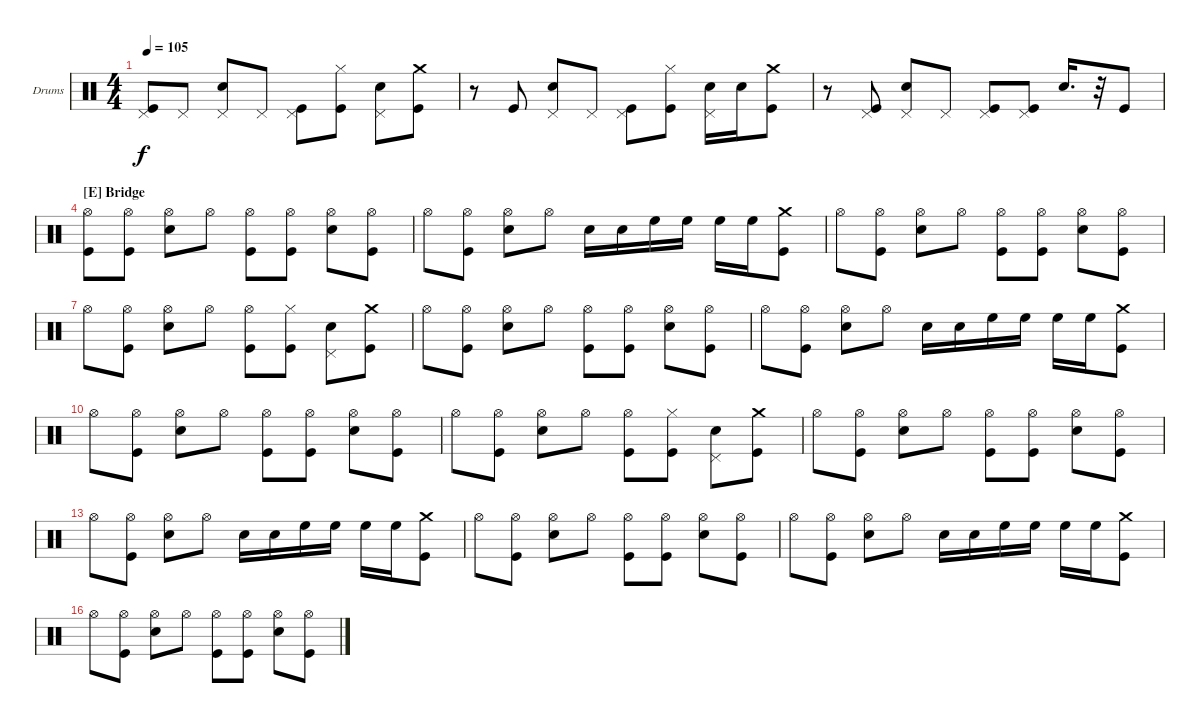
\bracketExtendMode nobrackets
\firstSystemTrackNameOrientation horizontal
\otherSystemsTrackNameOrientation horizontal
\defaultBarNumberDisplay FirstOfSystem
\track ("Drumkit" "Drums") {instrument percussion}
\staff {score}
\articulation defaults
\ts (4 4)
\tempo 105
\clef neutral
\ks c
("Kick (hit)" "Pedal Hi-Hat (hit)").8{dy f} "Pedal Hi-Hat (hit)".8 ("Snare (hit) 2" "Pedal Hi-Hat (hit)").8 "Pedal Hi-Hat (hit)".8 ("Kick (hit)" "Pedal Hi-Hat (hit)").8 ("Kick (hit)" "Hi-Hat (closed)").8 ("Snare (hit) 2" "Pedal Hi-Hat (hit)").8 ("Kick (hit)" "Crash medium (hit)").8 |
r.8 "Kick (hit)".8 ("Snare (hit) 2" "Pedal Hi-Hat (hit)").8 "Pedal Hi-Hat (hit)".8 ("Kick (hit)" "Pedal Hi-Hat (hit)").8 ("Kick (hit)" "Hi-Hat (closed)").8 ("Snare (hit) 2" "Pedal Hi-Hat (hit)").16 "Snare (hit) 2".16 ("Kick (hit)" "Crash medium (hit)").8 |
r.8 ("Kick (hit)" "Pedal Hi-Hat (hit)").8 ("Snare (hit) 2" "Pedal Hi-Hat (hit)").8 "Pedal Hi-Hat (hit)".8 ("Kick (hit)" "Pedal Hi-Hat (hit)").8 ("Kick (hit)" "Pedal Hi-Hat (hit)").8 "Snare (hit) 2".16{d} r.32 "Kick (hit)".8 |
\section ("E" "Bridge")
("Kick (hit)" "Hi-Hat (open)").8 ("Kick (hit)" "Hi-Hat (open)").8 ("Snare (hit) 2" "Hi-Hat (open)").8 "Hi-Hat (open)".8 ("Kick (hit)" "Hi-Hat (open)").8 ("Kick (hit)" "Hi-Hat (open)").8 ("Snare (hit) 2" "Hi-Hat (open)").8 ("Kick (hit)" "Hi-Hat (open)").8 |
"Hi-Hat (open)".8 ("Kick (hit)" "Hi-Hat (open)").8 ("Snare (hit) 2" "Hi-Hat (open)").8 "Hi-Hat (open)".8 "Snare (hit) 2".16 "Snare (hit) 2".16 "High Floor Tom (hit)".16 "High Floor Tom (hit)".16 "High Floor Tom (hit)".16 "High Floor Tom (hit)".16 ("Kick (hit)" "Crash medium (hit)").8 |
"Hi-Hat (open)".8 ("Kick (hit)" "Hi-Hat (open)").8 ("Snare (hit) 2" "Hi-Hat (open)").8 "Hi-Hat (open)".8 ("Kick (hit)" "Hi-Hat (open)").8 ("Kick (hit)" "Hi-Hat (open)").8 ("Snare (hit) 2" "Hi-Hat (open)").8 ("Kick (hit)" "Hi-Hat (open)").8 |
"Hi-Hat (open)".8 ("Kick (hit)" "Hi-Hat (open)").8 ("Snare (hit) 2" "Hi-Hat (open)").8 "Hi-Hat (open)".8 ("Kick (hit)" "Hi-Hat (open)").8 ("Kick (hit)" "Hi-Hat (closed)").8 ("Snare (hit) 2" "Pedal Hi-Hat (hit)").8 ("Kick (hit)" "Crash medium (hit)").8 |
"Hi-Hat (open)".8 ("Kick (hit)" "Hi-Hat (open)").8 ("Snare (hit) 2" "Hi-Hat (open)").8 "Hi-Hat (open)".8 ("Kick (hit)" "Hi-Hat (open)").8 ("Kick (hit)" "Hi-Hat (open)").8 ("Snare (hit) 2" "Hi-Hat (open)").8 ("Kick (hit)" "Hi-Hat (open)").8 |
"Hi-Hat (open)".8 ("Kick (hit)" "Hi-Hat (open)").8 ("Snare (hit) 2" "Hi-Hat (open)").8 "Hi-Hat (open)".8 "Snare (hit) 2".16 "Snare (hit) 2".16 "High Floor Tom (hit)".16 "High Floor Tom (hit)".16 "High Floor Tom (hit)".16 "High Floor Tom (hit)".16 ("Kick (hit)" "Crash medium (hit)").8 |
"Hi-Hat (open)".8 ("Kick (hit)" "Hi-Hat (open)").8 ("Snare (hit) 2" "Hi-Hat (open)").8 "Hi-Hat (open)".8 ("Kick (hit)" "Hi-Hat (open)").8 ("Kick (hit)" "Hi-Hat (open)").8 ("Snare (hit) 2" "Hi-Hat (open)").8 ("Kick (hit)" "Hi-Hat (open)").8 |
"Hi-Hat (open)".8 ("Kick (hit)" "Hi-Hat (open)").8 ("Snare (hit) 2" "Hi-Hat (open)").8 "Hi-Hat (open)".8 ("Kick (hit)" "Hi-Hat (open)").8 ("Kick (hit)" "Hi-Hat (closed)").8 ("Snare (hit) 2" "Pedal Hi-Hat (hit)").8 ("Kick (hit)" "Crash medium (hit)").8 |
"Hi-Hat (open)".8 ("Kick (hit)" "Hi-Hat (open)").8 ("Snare (hit) 2" "Hi-Hat (open)").8 "Hi-Hat (open)".8 ("Kick (hit)" "Hi-Hat (open)").8 ("Kick (hit)" "Hi-Hat (open)").8 ("Snare (hit) 2" "Hi-Hat (open)").8 ("Kick (hit)" "Hi-Hat (open)").8 |
"Hi-Hat (open)".8 ("Kick (hit)" "Hi-Hat (open)").8 ("Snare (hit) 2" "Hi-Hat (open)").8 "Hi-Hat (open)".8 "Snare (hit) 2".16 "Snare (hit) 2".16 "High Floor Tom (hit)".16 "High Floor Tom (hit)".16 "High Floor Tom (hit)".16 "High Floor Tom (hit)".16 ("Kick (hit)" "Crash medium (hit)").8 |
"Hi-Hat (open)".8 ("Kick (hit)" "Hi-Hat (open)").8 ("Snare (hit) 2" "Hi-Hat (open)").8 "Hi-Hat (open)".8 ("Kick (hit)" "Hi-Hat (open)").8 ("Kick (hit)" "Hi-Hat (open)").8 ("Snare (hit) 2" "Hi-Hat (open)").8 ("Kick (hit)" "Hi-Hat (open)").8 |
"Hi-Hat (open)".8 ("Kick (hit)" "Hi-Hat (open)").8 ("Snare (hit) 2" "Hi-Hat (open)").8 "Hi-Hat (open)".8 "Snare (hit) 2".16 "Snare (hit) 2".16 "High Floor Tom (hit)".16 "High Floor Tom (hit)".16 "High Floor Tom (hit)".16 "High Floor Tom (hit)".16 ("Kick (hit)" "Crash medium (hit)").8 |
"Hi-Hat (open)".8 ("Kick (hit)" "Hi-Hat (open)").8 ("Snare (hit) 2" "Hi-Hat (open)").8 "Hi-Hat (open)".8 ("Kick (hit)" "Hi-Hat (open)").8 ("Kick (hit)" "Hi-Hat (open)").8 ("Snare (hit) 2" "Hi-Hat (open)").8 ("Kick (hit)" "Hi-Hat (open)").8
